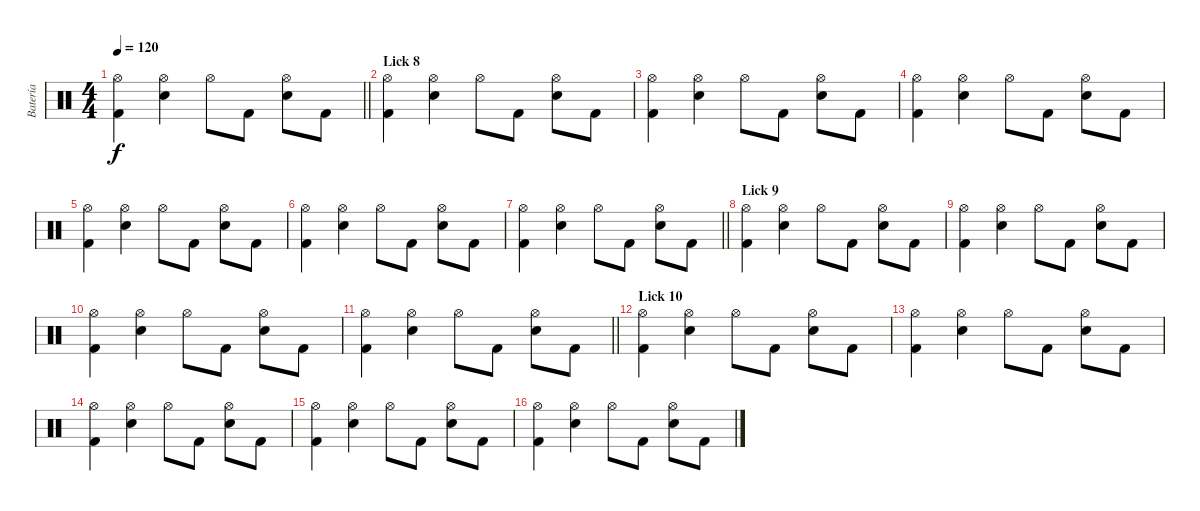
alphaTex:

\track ("Batería" "Batería") {instrument percussion}
\staff {score}
\articulation defaults
\ts (4 4)
\tempo 120
\clef neutral
\barLineRight lightlight
\ks c
("Hi-Hat (open)" "Kick (hit) 2").4{dy f} ("Hi-Hat (open)" "Electric Snare (hit)").4 "Hi-Hat (open)".8 "Kick (hit) 2".8 ("Hi-Hat (open)" "Electric Snare (hit)").8 "Kick (hit) 2".8 |
\section ("" "Lick 8")
("Hi-Hat (open)" "Kick (hit) 2").4 ("Hi-Hat (open)" "Electric Snare (hit)").4 "Hi-Hat (open)".8 "Kick (hit) 2".8 ("Hi-Hat (open)" "Electric Snare (hit)").8 "Kick (hit) 2".8 |
("Hi-Hat (open)" "Kick (hit) 2").4 ("Hi-Hat (open)" "Electric Snare (hit)").4 "Hi-Hat (open)".8 "Kick (hit) 2".8 ("Hi-Hat (open)" "Electric Snare (hit)").8 "Kick (hit) 2".8 |
("Hi-Hat (open)" "Kick (hit) 2").4 ("Hi-Hat (open)" "Electric Snare (hit)").4 "Hi-Hat (open)".8 "Kick (hit) 2".8 ("Hi-Hat (open)" "Electric Snare (hit)").8 "Kick (hit) 2".8 |
("Hi-Hat (open)" "Kick (hit) 2").4 ("Hi-Hat (open)" "Electric Snare (hit)").4 "Hi-Hat (open)".8 "Kick (hit) 2".8 ("Hi-Hat (open)" "Electric Snare (hit)").8 "Kick (hit) 2".8 |
("Hi-Hat (open)" "Kick (hit) 2").4 ("Hi-Hat (open)" "Electric Snare (hit)").4 "Hi-Hat (open)".8 "Kick (hit) 2".8 ("Hi-Hat (open)" "Electric Snare (hit)").8 "Kick (hit) 2".8 |
\barLineRight lightlight
("Hi-Hat (open)" "Kick (hit) 2").4 ("Hi-Hat (open)" "Electric Snare (hit)").4 "Hi-Hat (open)".8 "Kick (hit) 2".8 ("Hi-Hat (open)" "Electric Snare (hit)").8 "Kick (hit) 2".8 |
\section ("" "Lick 9")
("Hi-Hat (open)" "Kick (hit) 2").4 ("Hi-Hat (open)" "Electric Snare (hit)").4 "Hi-Hat (open)".8 "Kick (hit) 2".8 ("Hi-Hat (open)" "Electric Snare (hit)").8 "Kick (hit) 2".8 |
("Hi-Hat (open)" "Kick (hit) 2").4 ("Hi-Hat (open)" "Electric Snare (hit)").4 "Hi-Hat (open)".8 "Kick (hit) 2".8 ("Hi-Hat (open)" "Electric Snare (hit)").8 "Kick (hit) 2".8 |
("Hi-Hat (open)" "Kick (hit) 2").4 ("Hi-Hat (open)" "Electric Snare (hit)").4 "Hi-Hat (open)".8 "Kick (hit) 2".8 ("Hi-Hat (open)" "Electric Snare (hit)").8 "Kick (hit) 2".8 |
\barLineRight lightlight
("Hi-Hat (open)" "Kick (hit) 2").4 ("Hi-Hat (open)" "Electric Snare (hit)").4 "Hi-Hat (open)".8 "Kick (hit) 2".8 ("Hi-Hat (open)" "Electric Snare (hit)").8 "Kick (hit) 2".8 |
\section ("" "Lick 10")
("Hi-Hat (open)" "Kick (hit) 2").4 ("Hi-Hat (open)" "Electric Snare (hit)").4 "Hi-Hat (open)".8 "Kick (hit) 2".8 ("Hi-Hat (open)" "Electric Snare (hit)").8 "Kick (hit) 2".8 |
("Hi-Hat (open)" "Kick (hit) 2").4 ("Hi-Hat (open)" "Electric Snare (hit)").4 "Hi-Hat (open)".8 "Kick (hit) 2".8 ("Hi-Hat (open)" "Electric Snare (hit)").8 "Kick (hit) 2".8 |
("Hi-Hat (open)" "Kick (hit) 2").4 ("Hi-Hat (open)" "Electric Snare (hit)").4 "Hi-Hat (open)".8 "Kick (hit) 2".8 ("Hi-Hat (open)" "Electric Snare (hit)").8 "Kick (hit) 2".8 |
("Hi-Hat (open)" "Kick (hit) 2").4 ("Hi-Hat (open)" "Electric Snare (hit)").4 "Hi-Hat (open)".8 "Kick (hit) 2".8 ("Hi-Hat (open)" "Electric Snare (hit)").8 "Kick (hit) 2".8 |
("Hi-Hat (open)" "Kick (hit) 2").4 ("Hi-Hat (open)" "Electric Snare (hit)").4 "Hi-Hat (open)".8 "Kick (hit) 2".8 ("Hi-Hat (open)" "Electric Snare (hit)").8 "Kick (hit) 2".8
